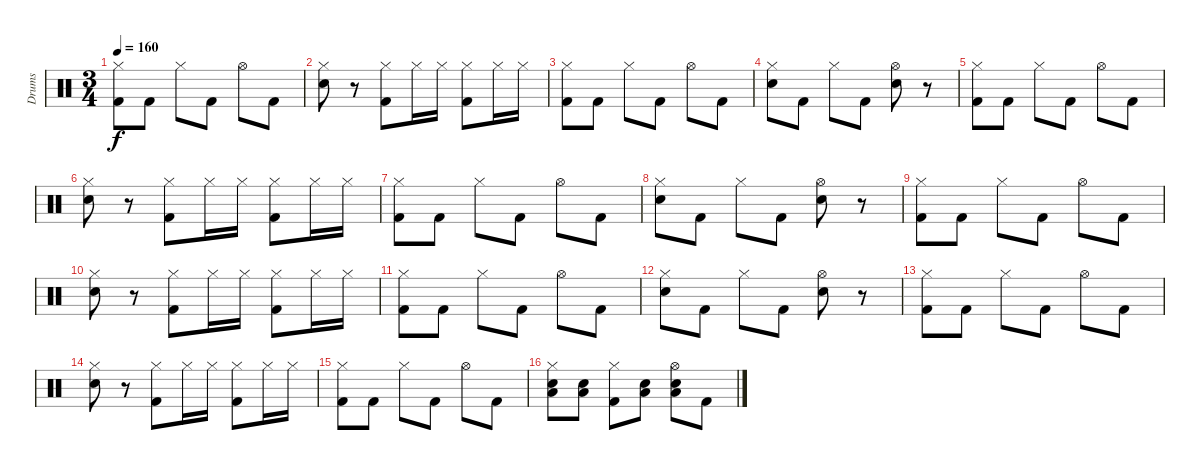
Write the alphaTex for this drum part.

\track ("Drums" "Drums") {instrument percussion}
\staff {score}
\articulation defaults
\ts (3 4)
\tempo 160
\clef neutral
\ks c
("Hi-Hat (closed)" "Kick (hit) 2").8{dy f} "Kick (hit) 2".8 "Hi-Hat (closed)".8 "Kick (hit) 2".8 "Hi-Hat (open)".8 "Kick (hit) 2".8 |
("Hi-Hat (closed)" "Snare (hit) 2").8 r.8 ("Hi-Hat (closed)" "Kick (hit) 2").8 "Hi-Hat (closed)".16 "Hi-Hat (closed)".16 ("Hi-Hat (closed)" "Kick (hit) 2").8 "Hi-Hat (closed)".16 "Hi-Hat (closed)".16 |
("Hi-Hat (closed)" "Kick (hit) 2").8 "Kick (hit) 2".8 "Hi-Hat (closed)".8 "Kick (hit) 2".8 "Hi-Hat (open)".8 "Kick (hit) 2".8 |
("Hi-Hat (closed)" "Snare (hit) 2").8 "Kick (hit) 2".8 "Hi-Hat (closed)".8 "Kick (hit) 2".8 ("Hi-Hat (open)" "Snare (hit) 2").8 r.8 |
("Hi-Hat (closed)" "Kick (hit) 2").8 "Kick (hit) 2".8 "Hi-Hat (closed)".8 "Kick (hit) 2".8 "Hi-Hat (open)".8 "Kick (hit) 2".8 |
("Hi-Hat (closed)" "Snare (hit) 2").8 r.8 ("Hi-Hat (closed)" "Kick (hit) 2").8 "Hi-Hat (closed)".16 "Hi-Hat (closed)".16 ("Hi-Hat (closed)" "Kick (hit) 2").8 "Hi-Hat (closed)".16 "Hi-Hat (closed)".16 |
("Hi-Hat (closed)" "Kick (hit) 2").8 "Kick (hit) 2".8 "Hi-Hat (closed)".8 "Kick (hit) 2".8 "Hi-Hat (open)".8 "Kick (hit) 2".8 |
("Hi-Hat (closed)" "Snare (hit) 2").8 "Kick (hit) 2".8 "Hi-Hat (closed)".8 "Kick (hit) 2".8 ("Hi-Hat (open)" "Snare (hit) 2").8 r.8 |
("Hi-Hat (closed)" "Kick (hit) 2").8 "Kick (hit) 2".8 "Hi-Hat (closed)".8 "Kick (hit) 2".8 "Hi-Hat (open)".8 "Kick (hit) 2".8 |
("Hi-Hat (closed)" "Snare (hit) 2").8 r.8 ("Hi-Hat (closed)" "Kick (hit) 2").8 "Hi-Hat (closed)".16 "Hi-Hat (closed)".16 ("Hi-Hat (closed)" "Kick (hit) 2").8 "Hi-Hat (closed)".16 "Hi-Hat (closed)".16 |
("Hi-Hat (closed)" "Kick (hit) 2").8 "Kick (hit) 2".8 "Hi-Hat (closed)".8 "Kick (hit) 2".8 "Hi-Hat (open)".8 "Kick (hit) 2".8 |
("Hi-Hat (closed)" "Snare (hit) 2").8 "Kick (hit) 2".8 "Hi-Hat (closed)".8 "Kick (hit) 2".8 ("Hi-Hat (open)" "Snare (hit) 2").8 r.8 |
("Hi-Hat (closed)" "Kick (hit) 2").8 "Kick (hit) 2".8 "Hi-Hat (closed)".8 "Kick (hit) 2".8 "Hi-Hat (open)".8 "Kick (hit) 2".8 |
("Hi-Hat (closed)" "Snare (hit) 2").8 r.8 ("Hi-Hat (closed)" "Kick (hit) 2").8 "Hi-Hat (closed)".16 "Hi-Hat (closed)".16 ("Hi-Hat (closed)" "Kick (hit) 2").8 "Hi-Hat (closed)".16 "Hi-Hat (closed)".16 |
("Hi-Hat (closed)" "Kick (hit) 2").8 "Kick (hit) 2".8 "Hi-Hat (closed)".8 "Kick (hit) 2".8 "Hi-Hat (open)".8 "Kick (hit) 2".8 |
("Hi-Hat (closed)" "Low Floor Tom (hit)" "Snare (hit) 2").8 ("Low Floor Tom (hit)" "Snare (hit) 2").8 ("Hi-Hat (closed)" "Kick (hit) 2").8 ("Low Floor Tom (hit)" "Snare (hit) 2").8 ("Hi-Hat (open)" "Low Floor Tom (hit)" "Snare (hit) 2").8 "Kick (hit) 2".8
